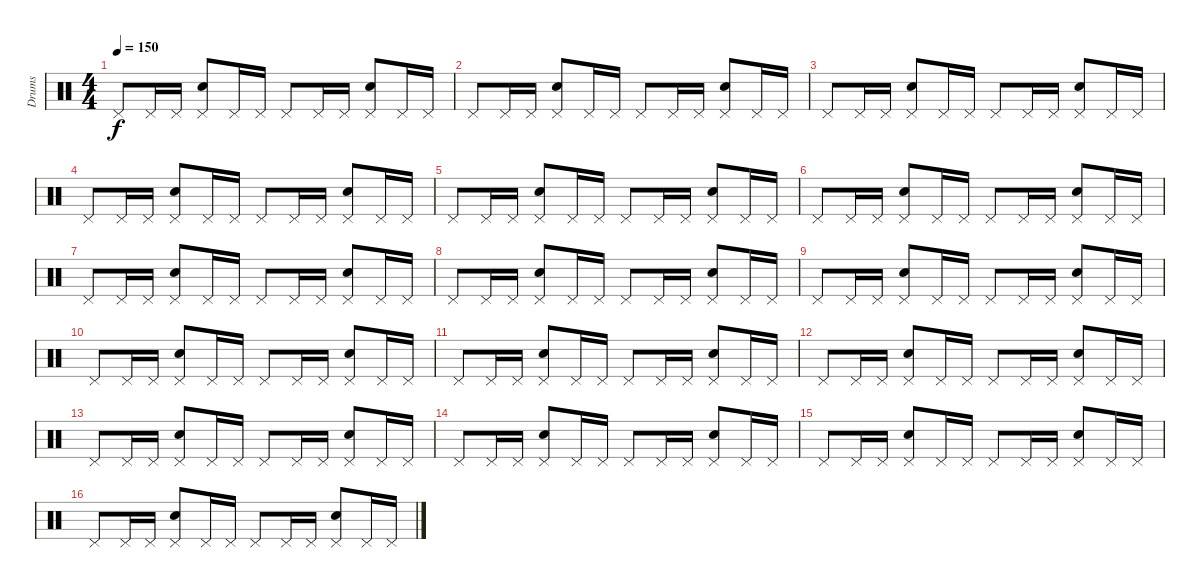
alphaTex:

\track ("Drums" "Drums") {instrument percussion}
\staff {score}
\articulation defaults
\ts (4 4)
\tempo 150
\clef neutral
\ks c "Pedal Hi-Hat (hit)".8{dy f} "Pedal Hi-Hat (hit)".16 "Pedal Hi-Hat (hit)".16
("Pedal Hi-Hat (hit)" "Electric Snare (hit)").8 "Pedal Hi-Hat (hit)".16 "Pedal Hi-Hat (hit)".16 "Pedal Hi-Hat (hit)".8 "Pedal Hi-Hat (hit)".16 "Pedal Hi-Hat (hit)".16 ("Pedal Hi-Hat (hit)" "Electric Snare (hit)").8 "Pedal Hi-Hat (hit)".16 "Pedal Hi-Hat (hit)".16 |
"Pedal Hi-Hat (hit)".8 "Pedal Hi-Hat (hit)".16 "Pedal Hi-Hat (hit)".16 ("Pedal Hi-Hat (hit)" "Electric Snare (hit)").8 "Pedal Hi-Hat (hit)".16 "Pedal Hi-Hat (hit)".16 "Pedal Hi-Hat (hit)".8 "Pedal Hi-Hat (hit)".16 "Pedal Hi-Hat (hit)".16 ("Pedal Hi-Hat (hit)" "Electric Snare (hit)").8 "Pedal Hi-Hat (hit)".16 "Pedal Hi-Hat (hit)".16 |
"Pedal Hi-Hat (hit)".8 "Pedal Hi-Hat (hit)".16 "Pedal Hi-Hat (hit)".16 ("Pedal Hi-Hat (hit)" "Electric Snare (hit)").8 "Pedal Hi-Hat (hit)".16 "Pedal Hi-Hat (hit)".16 "Pedal Hi-Hat (hit)".8 "Pedal Hi-Hat (hit)".16 "Pedal Hi-Hat (hit)".16 ("Pedal Hi-Hat (hit)" "Electric Snare (hit)").8 "Pedal Hi-Hat (hit)".16 "Pedal Hi-Hat (hit)".16 |
"Pedal Hi-Hat (hit)".8 "Pedal Hi-Hat (hit)".16 "Pedal Hi-Hat (hit)".16 ("Pedal Hi-Hat (hit)" "Electric Snare (hit)").8 "Pedal Hi-Hat (hit)".16 "Pedal Hi-Hat (hit)".16 "Pedal Hi-Hat (hit)".8 "Pedal Hi-Hat (hit)".16 "Pedal Hi-Hat (hit)".16 ("Pedal Hi-Hat (hit)" "Electric Snare (hit)").8 "Pedal Hi-Hat (hit)".16 "Pedal Hi-Hat (hit)".16 |
"Pedal Hi-Hat (hit)".8 "Pedal Hi-Hat (hit)".16 "Pedal Hi-Hat (hit)".16 ("Pedal Hi-Hat (hit)" "Electric Snare (hit)").8 "Pedal Hi-Hat (hit)".16 "Pedal Hi-Hat (hit)".16 "Pedal Hi-Hat (hit)".8 "Pedal Hi-Hat (hit)".16 "Pedal Hi-Hat (hit)".16 ("Pedal Hi-Hat (hit)" "Electric Snare (hit)").8 "Pedal Hi-Hat (hit)".16 "Pedal Hi-Hat (hit)".16 |
"Pedal Hi-Hat (hit)".8 "Pedal Hi-Hat (hit)".16 "Pedal Hi-Hat (hit)".16 ("Pedal Hi-Hat (hit)" "Electric Snare (hit)").8 "Pedal Hi-Hat (hit)".16 "Pedal Hi-Hat (hit)".16 "Pedal Hi-Hat (hit)".8 "Pedal Hi-Hat (hit)".16 "Pedal Hi-Hat (hit)".16 ("Pedal Hi-Hat (hit)" "Electric Snare (hit)").8 "Pedal Hi-Hat (hit)".16 "Pedal Hi-Hat (hit)".16 |
"Pedal Hi-Hat (hit)".8 "Pedal Hi-Hat (hit)".16 "Pedal Hi-Hat (hit)".16 ("Pedal Hi-Hat (hit)" "Electric Snare (hit)").8 "Pedal Hi-Hat (hit)".16 "Pedal Hi-Hat (hit)".16 "Pedal Hi-Hat (hit)".8 "Pedal Hi-Hat (hit)".16 "Pedal Hi-Hat (hit)".16 ("Pedal Hi-Hat (hit)" "Electric Snare (hit)").8 "Pedal Hi-Hat (hit)".16 "Pedal Hi-Hat (hit)".16 |
"Pedal Hi-Hat (hit)".8 "Pedal Hi-Hat (hit)".16 "Pedal Hi-Hat (hit)".16 ("Pedal Hi-Hat (hit)" "Electric Snare (hit)").8 "Pedal Hi-Hat (hit)".16 "Pedal Hi-Hat (hit)".16 "Pedal Hi-Hat (hit)".8 "Pedal Hi-Hat (hit)".16 "Pedal Hi-Hat (hit)".16 ("Pedal Hi-Hat (hit)" "Electric Snare (hit)").8 "Pedal Hi-Hat (hit)".16 "Pedal Hi-Hat (hit)".16 |
"Pedal Hi-Hat (hit)".8 "Pedal Hi-Hat (hit)".16 "Pedal Hi-Hat (hit)".16 ("Pedal Hi-Hat (hit)" "Electric Snare (hit)").8 "Pedal Hi-Hat (hit)".16 "Pedal Hi-Hat (hit)".16 "Pedal Hi-Hat (hit)".8 "Pedal Hi-Hat (hit)".16 "Pedal Hi-Hat (hit)".16 ("Pedal Hi-Hat (hit)" "Electric Snare (hit)").8 "Pedal Hi-Hat (hit)".16 "Pedal Hi-Hat (hit)".16 |
"Pedal Hi-Hat (hit)".8 "Pedal Hi-Hat (hit)".16 "Pedal Hi-Hat (hit)".16 ("Pedal Hi-Hat (hit)" "Electric Snare (hit)").8 "Pedal Hi-Hat (hit)".16 "Pedal Hi-Hat (hit)".16 "Pedal Hi-Hat (hit)".8 "Pedal Hi-Hat (hit)".16 "Pedal Hi-Hat (hit)".16 ("Pedal Hi-Hat (hit)" "Electric Snare (hit)").8 "Pedal Hi-Hat (hit)".16 "Pedal Hi-Hat (hit)".16 |
"Pedal Hi-Hat (hit)".8 "Pedal Hi-Hat (hit)".16 "Pedal Hi-Hat (hit)".16 ("Pedal Hi-Hat (hit)" "Electric Snare (hit)").8 "Pedal Hi-Hat (hit)".16 "Pedal Hi-Hat (hit)".16 "Pedal Hi-Hat (hit)".8 "Pedal Hi-Hat (hit)".16 "Pedal Hi-Hat (hit)".16 ("Pedal Hi-Hat (hit)" "Electric Snare (hit)").8 "Pedal Hi-Hat (hit)".16 "Pedal Hi-Hat (hit)".16 |
"Pedal Hi-Hat (hit)".8 "Pedal Hi-Hat (hit)".16 "Pedal Hi-Hat (hit)".16 ("Pedal Hi-Hat (hit)" "Electric Snare (hit)").8 "Pedal Hi-Hat (hit)".16 "Pedal Hi-Hat (hit)".16 "Pedal Hi-Hat (hit)".8 "Pedal Hi-Hat (hit)".16 "Pedal Hi-Hat (hit)".16 ("Pedal Hi-Hat (hit)" "Electric Snare (hit)").8 "Pedal Hi-Hat (hit)".16 "Pedal Hi-Hat (hit)".16 |
"Pedal Hi-Hat (hit)".8 "Pedal Hi-Hat (hit)".16 "Pedal Hi-Hat (hit)".16 ("Pedal Hi-Hat (hit)" "Electric Snare (hit)").8 "Pedal Hi-Hat (hit)".16 "Pedal Hi-Hat (hit)".16 "Pedal Hi-Hat (hit)".8 "Pedal Hi-Hat (hit)".16 "Pedal Hi-Hat (hit)".16 ("Pedal Hi-Hat (hit)" "Electric Snare (hit)").8 "Pedal Hi-Hat (hit)".16 "Pedal Hi-Hat (hit)".16 |
"Pedal Hi-Hat (hit)".8 "Pedal Hi-Hat (hit)".16 "Pedal Hi-Hat (hit)".16 ("Pedal Hi-Hat (hit)" "Electric Snare (hit)").8 "Pedal Hi-Hat (hit)".16 "Pedal Hi-Hat (hit)".16 "Pedal Hi-Hat (hit)".8 "Pedal Hi-Hat (hit)".16 "Pedal Hi-Hat (hit)".16 ("Pedal Hi-Hat (hit)" "Electric Snare (hit)").8 "Pedal Hi-Hat (hit)".16 "Pedal Hi-Hat (hit)".16 |
"Pedal Hi-Hat (hit)".8 "Pedal Hi-Hat (hit)".16 "Pedal Hi-Hat (hit)".16 ("Pedal Hi-Hat (hit)" "Electric Snare (hit)").8 "Pedal Hi-Hat (hit)".16 "Pedal Hi-Hat (hit)".16 "Pedal Hi-Hat (hit)".8 "Pedal Hi-Hat (hit)".16 "Pedal Hi-Hat (hit)".16 ("Pedal Hi-Hat (hit)" "Electric Snare (hit)").8 "Pedal Hi-Hat (hit)".16 "Pedal Hi-Hat (hit)".16 |
"Pedal Hi-Hat (hit)".8 "Pedal Hi-Hat (hit)".16 "Pedal Hi-Hat (hit)".16 ("Pedal Hi-Hat (hit)" "Electric Snare (hit)").8 "Pedal Hi-Hat (hit)".16 "Pedal Hi-Hat (hit)".16 "Pedal Hi-Hat (hit)".8 "Pedal Hi-Hat (hit)".16 "Pedal Hi-Hat (hit)".16 ("Pedal Hi-Hat (hit)" "Electric Snare (hit)").8 "Pedal Hi-Hat (hit)".16 "Pedal Hi-Hat (hit)".16
